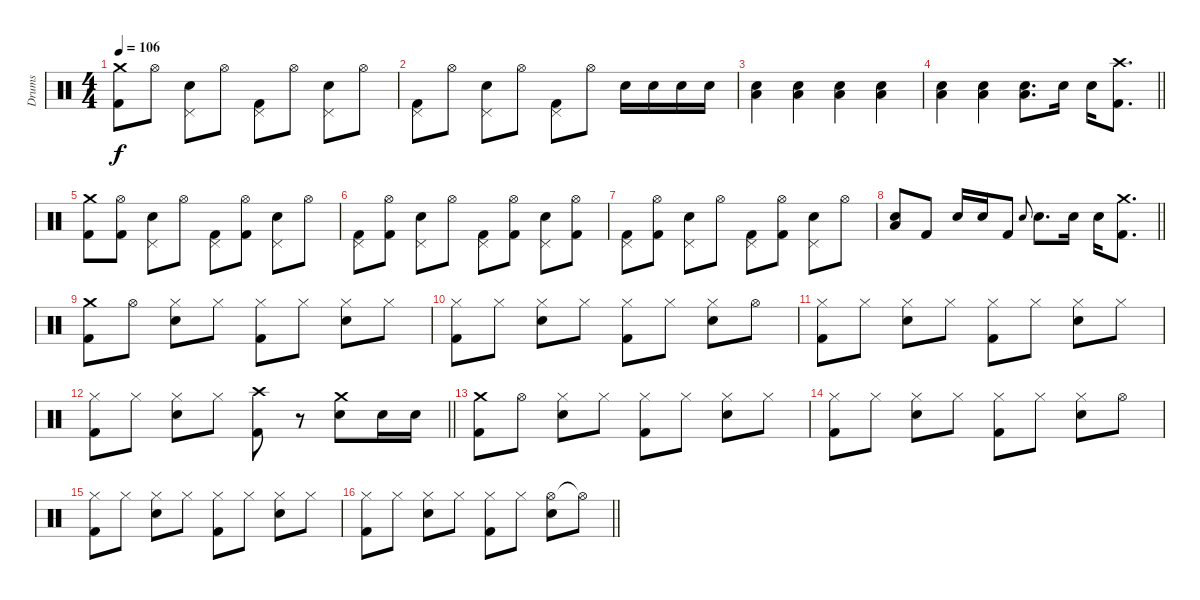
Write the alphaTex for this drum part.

\track ("Drums" "Drums") {instrument percussion}
\staff {score}
\articulation defaults
\ts (4 4)
\tempo 106
\clef neutral
\ks c
("Crash medium (hit)" "Kick (hit) 2").8{dy f} "Hi-Hat (open)".8 ("Pedal Hi-Hat (hit)" "Electric Snare (hit)").8 "Hi-Hat (open)".8 ("Pedal Hi-Hat (hit)" "Kick (hit) 2").8 "Hi-Hat (open)".8 ("Pedal Hi-Hat (hit)" "Electric Snare (hit)").8 "Hi-Hat (open)".8 |
("Pedal Hi-Hat (hit)" "Kick (hit) 2").8 "Hi-Hat (open)".8 ("Pedal Hi-Hat (hit)" "Electric Snare (hit)").8 "Hi-Hat (open)".8 ("Pedal Hi-Hat (hit)" "Kick (hit) 2").8 "Hi-Hat (open)".8 "Electric Snare (hit)".16 "Electric Snare (hit)".16 "Electric Snare (hit)".16 "Electric Snare (hit)".16 |
("Electric Snare (hit)" "Low Floor Tom (hit)").4 ("Electric Snare (hit)" "Low Floor Tom (hit)").4 ("Electric Snare (hit)" "Low Floor Tom (hit)").4 ("Electric Snare (hit)" "Low Floor Tom (hit)").4 |
\barLineRight lightlight
("Electric Snare (hit)" "Low Floor Tom (hit)").4 ("Electric Snare (hit)" "Low Floor Tom (hit)").4 ("Electric Snare (hit)" "Low Floor Tom (hit)").8{d} "Electric Snare (hit)".16 "Electric Snare (hit)".16 ("Crash high (hit)" "Kick (hit) 2").8{d} |
("Crash medium (hit)" "Kick (hit) 2").8 ("Hi-Hat (open)" "Kick (hit) 2").8 ("Pedal Hi-Hat (hit)" "Electric Snare (hit)").8 "Hi-Hat (open)".8 ("Pedal Hi-Hat (hit)" "Kick (hit) 2").8 ("Hi-Hat (open)" "Kick (hit) 2").8 ("Pedal Hi-Hat (hit)" "Electric Snare (hit)").8 "Hi-Hat (open)".8 |
("Pedal Hi-Hat (hit)" "Kick (hit) 2").8 ("Hi-Hat (open)" "Kick (hit) 2").8 ("Pedal Hi-Hat (hit)" "Electric Snare (hit)").8 "Hi-Hat (open)".8 ("Pedal Hi-Hat (hit)" "Kick (hit) 2").8 ("Hi-Hat (open)" "Kick (hit) 2").8 ("Pedal Hi-Hat (hit)" "Electric Snare (hit)").8 ("Hi-Hat (open)" "Kick (hit) 2").8 |
("Pedal Hi-Hat (hit)" "Kick (hit) 2").8 ("Hi-Hat (open)" "Kick (hit) 2").8 ("Pedal Hi-Hat (hit)" "Electric Snare (hit)").8 "Hi-Hat (open)".8 ("Pedal Hi-Hat (hit)" "Kick (hit) 2").8 ("Hi-Hat (open)" "Kick (hit) 2").8 ("Pedal Hi-Hat (hit)" "Electric Snare (hit)").8 "Hi-Hat (open)".8 |
\barLineRight lightlight
("Electric Snare (hit)" "Low Floor Tom (hit)").8 "Kick (hit) 2".8 "Electric Snare (hit)".16 "Electric Snare (hit)".16 "Kick (hit) 2".8 "Electric Snare (hit)".8{gr onbeat} "Electric Snare (hit)".8{d} "Electric Snare (hit)".16 "Electric Snare (hit)".16 ("Crash medium (hit)" "Kick (hit) 2").8{d} |
("Crash medium (hit)" "Kick (hit) 2").8 "Hi-Hat (open)".8 ("Hi-Hat (closed)" "Electric Snare (hit)").8 "Hi-Hat (closed)".8 ("Hi-Hat (closed)" "Kick (hit) 2").8 "Hi-Hat (closed)".8 ("Hi-Hat (closed)" "Electric Snare (hit)").8 "Hi-Hat (closed)".8 |
("Hi-Hat (closed)" "Kick (hit) 2").8 "Hi-Hat (closed)".8 ("Hi-Hat (closed)" "Electric Snare (hit)").8 "Hi-Hat (closed)".8 ("Hi-Hat (closed)" "Kick (hit) 2").8 "Hi-Hat (closed)".8 ("Hi-Hat (closed)" "Electric Snare (hit)").8 "Hi-Hat (open)".8 |
("Hi-Hat (closed)" "Kick (hit) 2").8 "Hi-Hat (closed)".8 ("Hi-Hat (closed)" "Electric Snare (hit)").8 "Hi-Hat (closed)".8 ("Hi-Hat (closed)" "Kick (hit) 2").8 "Hi-Hat (closed)".8 ("Hi-Hat (closed)" "Electric Snare (hit)").8 "Hi-Hat (closed)".8 |
\barLineRight lightlight
("Hi-Hat (closed)" "Kick (hit) 2").8 "Hi-Hat (closed)".8 ("Hi-Hat (closed)" "Electric Snare (hit)").8 "Hi-Hat (closed)".8 ("Crash high (hit)" "Kick (hit) 2").8 r.8 ("Crash medium (hit)" "Electric Snare (hit)").8 "Electric Snare (hit)".16 "Electric Snare (hit)".16 |
("Crash medium (hit)" "Kick (hit) 2").8 "Hi-Hat (open)".8 ("Hi-Hat (closed)" "Electric Snare (hit)").8 "Hi-Hat (closed)".8 ("Hi-Hat (closed)" "Kick (hit) 2").8 "Hi-Hat (closed)".8 ("Hi-Hat (closed)" "Electric Snare (hit)").8 "Hi-Hat (closed)".8 |
("Hi-Hat (closed)" "Kick (hit) 2").8 "Hi-Hat (closed)".8 ("Hi-Hat (closed)" "Electric Snare (hit)").8 "Hi-Hat (closed)".8 ("Hi-Hat (closed)" "Kick (hit) 2").8 "Hi-Hat (closed)".8 ("Hi-Hat (closed)" "Electric Snare (hit)").8 "Hi-Hat (open)".8 |
("Hi-Hat (closed)" "Kick (hit) 2").8 "Hi-Hat (closed)".8 ("Hi-Hat (closed)" "Electric Snare (hit)").8 "Hi-Hat (closed)".8 ("Hi-Hat (closed)" "Kick (hit) 2").8 "Hi-Hat (closed)".8 ("Hi-Hat (closed)" "Electric Snare (hit)").8 "Hi-Hat (closed)".8 |
\barLineRight lightlight
("Hi-Hat (closed)" "Kick (hit) 2").8 "Hi-Hat (closed)".8 ("Hi-Hat (closed)" "Electric Snare (hit)").8 "Hi-Hat (closed)".8 ("Hi-Hat (closed)" "Kick (hit) 2").8 "Hi-Hat (closed)".8 ("Hi-Hat (open)" "Electric Snare (hit)").8 "Hi-Hat (open)"{t}.8
